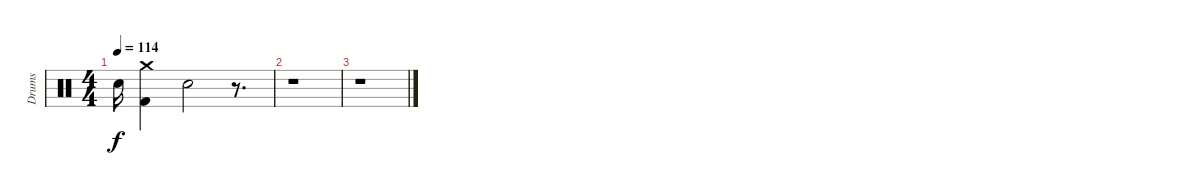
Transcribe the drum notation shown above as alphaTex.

\track ("Drums" "Drums") {instrument percussion}
\staff {score}
\articulation defaults
\ts (4 4)
\tempo 114
\clef neutral
\ks c "Electric Snare (hit)".16{dy f}
("Crash medium (hit)" "Kick (hit) 2").4 "Electric Snare (hit)".2 r.8{d} |
r.1 |
r.1
